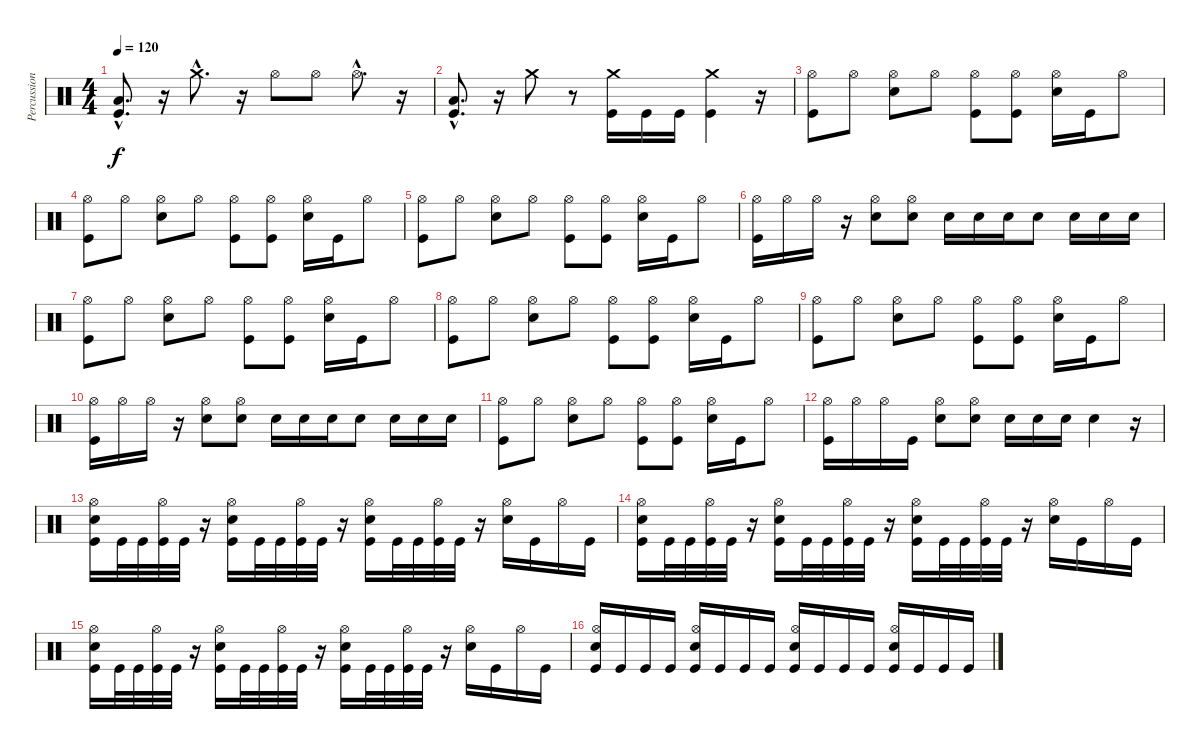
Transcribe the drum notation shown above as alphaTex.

\track ("Percussion" "Percussion") {instrument percussion}
\staff {score}
\articulation defaults
\ts (4 4)
\tempo 120
\clef neutral
\ks c
("Kick (hit)"{hac} "Low Floor Tom (hit)"{hac}).8{d dy f} r.16 "Crash medium (hit)"{hac}.8{d} r.16 "Hi-Hat (open)".8 "Hi-Hat (open)".8 "Hi-Hat (open)"{hac}.8{d} r.16 |
("Kick (hit)"{hac} "Low Floor Tom (hit)"{hac}).8{d} r.16 "Crash medium (hit)".8 r.8 ("Kick (hit)" "Crash medium (hit)").16 "Kick (hit)".16 "Kick (hit)".16 ("Kick (hit)" "Crash medium (hit)").4 r.16 |
("Hi-Hat (open)" "Kick (hit)").8 "Hi-Hat (open)".8 ("Hi-Hat (open)" "Electric Snare (hit)").8 "Hi-Hat (open)".8 ("Hi-Hat (open)" "Kick (hit)").8 ("Hi-Hat (open)" "Kick (hit)").8 ("Hi-Hat (open)" "Electric Snare (hit)").16 "Kick (hit)".16 "Hi-Hat (open)".8 |
("Hi-Hat (open)" "Kick (hit)").8 "Hi-Hat (open)".8 ("Hi-Hat (open)" "Electric Snare (hit)").8 "Hi-Hat (open)".8 ("Hi-Hat (open)" "Kick (hit)").8 ("Hi-Hat (open)" "Kick (hit)").8 ("Hi-Hat (open)" "Electric Snare (hit)").16 "Kick (hit)".16 "Hi-Hat (open)".8 |
("Hi-Hat (open)" "Kick (hit)").8 "Hi-Hat (open)".8 ("Hi-Hat (open)" "Electric Snare (hit)").8 "Hi-Hat (open)".8 ("Hi-Hat (open)" "Kick (hit)").8 ("Hi-Hat (open)" "Kick (hit)").8 ("Hi-Hat (open)" "Electric Snare (hit)").16 "Kick (hit)".16 "Hi-Hat (open)".8 |
("Hi-Hat (open)" "Kick (hit)").16 "Hi-Hat (open)".16 "Hi-Hat (open)".16 r.16 ("Hi-Hat (open)" "Electric Snare (hit)").8 ("Hi-Hat (open)" "Electric Snare (hit)").8 "Electric Snare (hit)".16 "Electric Snare (hit)".16 "Electric Snare (hit)".16 "Electric Snare (hit)".8 "Electric Snare (hit)".16 "Electric Snare (hit)".16 "Electric Snare (hit)".16 |
("Hi-Hat (open)" "Kick (hit)").8 "Hi-Hat (open)".8 ("Hi-Hat (open)" "Electric Snare (hit)").8 "Hi-Hat (open)".8 ("Hi-Hat (open)" "Kick (hit)").8 ("Hi-Hat (open)" "Kick (hit)").8 ("Hi-Hat (open)" "Electric Snare (hit)").16 "Kick (hit)".16 "Hi-Hat (open)".8 |
("Hi-Hat (open)" "Kick (hit)").8 "Hi-Hat (open)".8 ("Hi-Hat (open)" "Electric Snare (hit)").8 "Hi-Hat (open)".8 ("Hi-Hat (open)" "Kick (hit)").8 ("Hi-Hat (open)" "Kick (hit)").8 ("Hi-Hat (open)" "Electric Snare (hit)").16 "Kick (hit)".16 "Hi-Hat (open)".8 |
("Hi-Hat (open)" "Kick (hit)").8 "Hi-Hat (open)".8 ("Hi-Hat (open)" "Electric Snare (hit)").8 "Hi-Hat (open)".8 ("Hi-Hat (open)" "Kick (hit)").8 ("Hi-Hat (open)" "Kick (hit)").8 ("Hi-Hat (open)" "Electric Snare (hit)").16 "Kick (hit)".16 "Hi-Hat (open)".8 |
("Hi-Hat (open)" "Kick (hit)").16 "Hi-Hat (open)".16 "Hi-Hat (open)".16 r.16 ("Hi-Hat (open)" "Electric Snare (hit)").8 ("Hi-Hat (open)" "Electric Snare (hit)").8 "Electric Snare (hit)".16 "Electric Snare (hit)".16 "Electric Snare (hit)".16 "Electric Snare (hit)".8 "Electric Snare (hit)".16 "Electric Snare (hit)".16 "Electric Snare (hit)".16 |
("Hi-Hat (open)" "Kick (hit)").8 "Hi-Hat (open)".8 ("Hi-Hat (open)" "Electric Snare (hit)").8 "Hi-Hat (open)".8 ("Hi-Hat (open)" "Kick (hit)").8 ("Hi-Hat (open)" "Kick (hit)").8 ("Hi-Hat (open)" "Electric Snare (hit)").16 "Kick (hit)".16 "Hi-Hat (open)".8 |
("Hi-Hat (open)" "Kick (hit)").16 "Hi-Hat (open)".16 "Hi-Hat (open)".16 "Kick (hit)".16 ("Hi-Hat (open)" "Electric Snare (hit)").8 ("Hi-Hat (open)" "Electric Snare (hit)").8 "Electric Snare (hit)".16 "Electric Snare (hit)".16 "Electric Snare (hit)".16 "Electric Snare (hit)".4 r.16 |
("Hi-Hat (open)" "Electric Snare (hit)" "Kick (hit)").16 "Kick (hit)".32 "Kick (hit)".32 ("Hi-Hat (open)" "Kick (hit)").32 "Kick (hit)".32 r.16 ("Hi-Hat (open)" "Electric Snare (hit)" "Kick (hit)").16 "Kick (hit)".32 "Kick (hit)".32 ("Hi-Hat (open)" "Kick (hit)").32 "Kick (hit)".32 r.16 ("Hi-Hat (open)" "Electric Snare (hit)" "Kick (hit)").16 "Kick (hit)".32 "Kick (hit)".32 ("Hi-Hat (open)" "Kick (hit)").32 "Kick (hit)".32 r.16 ("Hi-Hat (open)" "Electric Snare (hit)").16 "Kick (hit)".16 "Hi-Hat (open)".16 "Kick (hit)".16 |
("Hi-Hat (open)" "Electric Snare (hit)" "Kick (hit)").16 "Kick (hit)".32 "Kick (hit)".32 ("Hi-Hat (open)" "Kick (hit)").32 "Kick (hit)".32 r.16 ("Hi-Hat (open)" "Electric Snare (hit)" "Kick (hit)").16 "Kick (hit)".32 "Kick (hit)".32 ("Hi-Hat (open)" "Kick (hit)").32 "Kick (hit)".32 r.16 ("Hi-Hat (open)" "Electric Snare (hit)" "Kick (hit)").16 "Kick (hit)".32 "Kick (hit)".32 ("Hi-Hat (open)" "Kick (hit)").32 "Kick (hit)".32 r.16 ("Hi-Hat (open)" "Electric Snare (hit)").16 "Kick (hit)".16 "Hi-Hat (open)".16 "Kick (hit)".16 |
("Hi-Hat (open)" "Electric Snare (hit)" "Kick (hit)").16 "Kick (hit)".32 "Kick (hit)".32 ("Hi-Hat (open)" "Kick (hit)").32 "Kick (hit)".32 r.16 ("Hi-Hat (open)" "Electric Snare (hit)" "Kick (hit)").16 "Kick (hit)".32 "Kick (hit)".32 ("Hi-Hat (open)" "Kick (hit)").32 "Kick (hit)".32 r.16 ("Hi-Hat (open)" "Electric Snare (hit)" "Kick (hit)").16 "Kick (hit)".32 "Kick (hit)".32 ("Hi-Hat (open)" "Kick (hit)").32 "Kick (hit)".32 r.16 ("Hi-Hat (open)" "Electric Snare (hit)").16 "Kick (hit)".16 "Hi-Hat (open)".16 "Kick (hit)".16 |
("Hi-Hat (open)" "Electric Snare (hit)" "Kick (hit)").16 "Kick (hit)".16 "Kick (hit)".16 "Kick (hit)".16 ("Hi-Hat (open)" "Electric Snare (hit)" "Kick (hit)").16 "Kick (hit)".16 "Kick (hit)".16 "Kick (hit)".16 ("Hi-Hat (open)" "Electric Snare (hit)" "Kick (hit)").16 "Kick (hit)".16 "Kick (hit)".16 "Kick (hit)".16 ("Hi-Hat (open)" "Electric Snare (hit)" "Kick (hit)").16 "Kick (hit)".16 "Kick (hit)".16 "Kick (hit)".16
